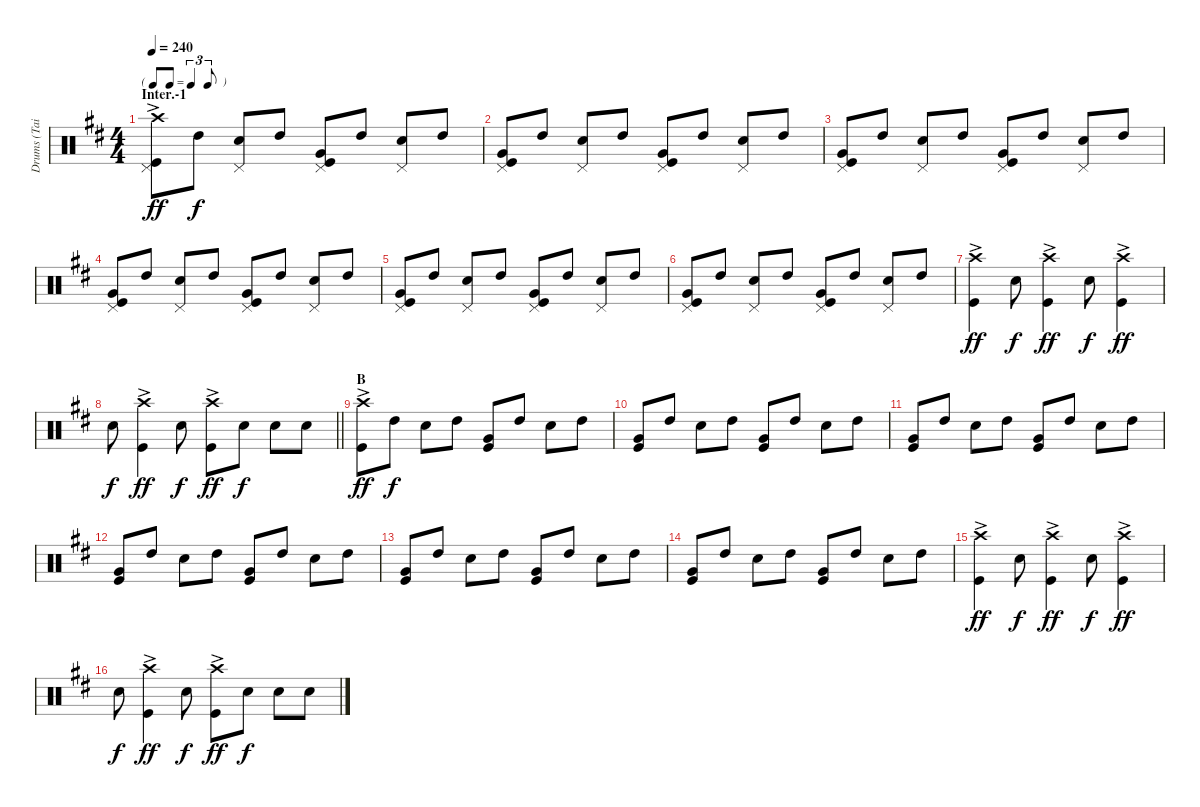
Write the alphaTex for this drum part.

\track ("Drums (Tainaka Ritsu)" "Drums (Tai") {instrument percussion}
\staff {score}
\articulation defaults
\ts (4 4)
\tf triplet8th
\section ("" "Inter.-1")
\tempo 240
\clef neutral
\ks d
("Crash high (hit)"{ac} "Kick (hit)" "Pedal Hi-Hat (hit)").8{dy ff} "High Tom (hit)".8{dy f} ("Pedal Hi-Hat (hit)" "Snare (hit) 2").8 "High Tom (hit)".8 ("Pedal Hi-Hat (hit)" "Kick (hit)" "Very Low Tom (hit)").8 "High Tom (hit)".8 ("Pedal Hi-Hat (hit)" "Snare (hit) 2").8 "High Tom (hit)".8 |
("Very Low Tom (hit)" "Kick (hit)" "Pedal Hi-Hat (hit)").8 "High Tom (hit)".8 ("Pedal Hi-Hat (hit)" "Snare (hit) 2").8 "High Tom (hit)".8 ("Pedal Hi-Hat (hit)" "Kick (hit)" "Very Low Tom (hit)").8 "High Tom (hit)".8 ("Pedal Hi-Hat (hit)" "Snare (hit) 2").8 "High Tom (hit)".8 |
("Very Low Tom (hit)" "Kick (hit)" "Pedal Hi-Hat (hit)").8 "High Tom (hit)".8 ("Pedal Hi-Hat (hit)" "Snare (hit) 2").8 "High Tom (hit)".8 ("Pedal Hi-Hat (hit)" "Kick (hit)" "Very Low Tom (hit)").8 "High Tom (hit)".8 ("Pedal Hi-Hat (hit)" "Snare (hit) 2").8 "High Tom (hit)".8 |
("Very Low Tom (hit)" "Kick (hit)" "Pedal Hi-Hat (hit)").8 "High Tom (hit)".8 ("Pedal Hi-Hat (hit)" "Snare (hit) 2").8 "High Tom (hit)".8 ("Pedal Hi-Hat (hit)" "Kick (hit)" "Very Low Tom (hit)").8 "High Tom (hit)".8 ("Pedal Hi-Hat (hit)" "Snare (hit) 2").8 "High Tom (hit)".8 |
("Very Low Tom (hit)" "Kick (hit)" "Pedal Hi-Hat (hit)").8 "High Tom (hit)".8 ("Pedal Hi-Hat (hit)" "Snare (hit) 2").8 "High Tom (hit)".8 ("Pedal Hi-Hat (hit)" "Kick (hit)" "Very Low Tom (hit)").8 "High Tom (hit)".8 ("Pedal Hi-Hat (hit)" "Snare (hit) 2").8 "High Tom (hit)".8 |
("Very Low Tom (hit)" "Kick (hit)" "Pedal Hi-Hat (hit)").8 "High Tom (hit)".8 ("Pedal Hi-Hat (hit)" "Snare (hit) 2").8 "High Tom (hit)".8 ("Pedal Hi-Hat (hit)" "Kick (hit)" "Very Low Tom (hit)").8 "High Tom (hit)".8 ("Pedal Hi-Hat (hit)" "Snare (hit) 2").8 "High Tom (hit)".8 |
("Crash high (hit)"{ac} "Kick (hit)").4{dy ff} "Snare (hit) 2".8{dy f} ("Kick (hit)" "Crash high (hit)"{ac}).4{dy ff} "Snare (hit) 2".8{dy f} ("Crash high (hit)"{ac} "Kick (hit)").4{dy ff} |
\barLineRight lightlight "Snare (hit) 2".8{dy f}
("Crash high (hit)"{ac} "Kick (hit)").4{dy ff} "Snare (hit) 2".8{dy f} ("Kick (hit)" "Crash high (hit)"{ac}).8{dy ff} "Snare (hit) 2".8{dy f} "Snare (hit) 2".8 "Snare (hit) 2".8 |
\section ("" "B")
("Crash high (hit)"{ac} "Kick (hit)").8{dy ff} "High Tom (hit)".8{dy f} "Snare (hit) 2".8 "High Tom (hit)".8 ("Kick (hit)" "Very Low Tom (hit)").8 "High Tom (hit)".8 "Snare (hit) 2".8 "High Tom (hit)".8 |
("Kick (hit)" "Very Low Tom (hit)").8 "High Tom (hit)".8 "Snare (hit) 2".8 "High Tom (hit)".8 ("Kick (hit)" "Very Low Tom (hit)").8 "High Tom (hit)".8 "Snare (hit) 2".8 "High Tom (hit)".8 |
("Kick (hit)" "Very Low Tom (hit)").8 "High Tom (hit)".8 "Snare (hit) 2".8 "High Tom (hit)".8 ("Kick (hit)" "Very Low Tom (hit)").8 "High Tom (hit)".8 "Snare (hit) 2".8 "High Tom (hit)".8 |
("Kick (hit)" "Very Low Tom (hit)").8 "High Tom (hit)".8 "Snare (hit) 2".8 "High Tom (hit)".8 ("Kick (hit)" "Very Low Tom (hit)").8 "High Tom (hit)".8 "Snare (hit) 2".8 "High Tom (hit)".8 |
("Kick (hit)" "Very Low Tom (hit)").8 "High Tom (hit)".8 "Snare (hit) 2".8 "High Tom (hit)".8 ("Kick (hit)" "Very Low Tom (hit)").8 "High Tom (hit)".8 "Snare (hit) 2".8 "High Tom (hit)".8 |
("Kick (hit)" "Very Low Tom (hit)").8 "High Tom (hit)".8 "Snare (hit) 2".8 "High Tom (hit)".8 ("Kick (hit)" "Very Low Tom (hit)").8 "High Tom (hit)".8 "Snare (hit) 2".8 "High Tom (hit)".8 |
("Kick (hit)" "Crash high (hit)"{ac}).4{dy ff} "Snare (hit) 2".8{dy f} ("Crash high (hit)"{ac} "Kick (hit)").4{dy ff} "Snare (hit) 2".8{dy f} ("Kick (hit)" "Crash high (hit)"{ac}).4{dy ff} |
"Snare (hit) 2".8{dy f} ("Kick (hit)" "Crash high (hit)"{ac}).4{dy ff} "Snare (hit) 2".8{dy f} ("Crash high (hit)"{ac} "Kick (hit)").8{dy ff} "Snare (hit) 2".8{dy f} "Snare (hit) 2".8 "Snare (hit) 2".8
